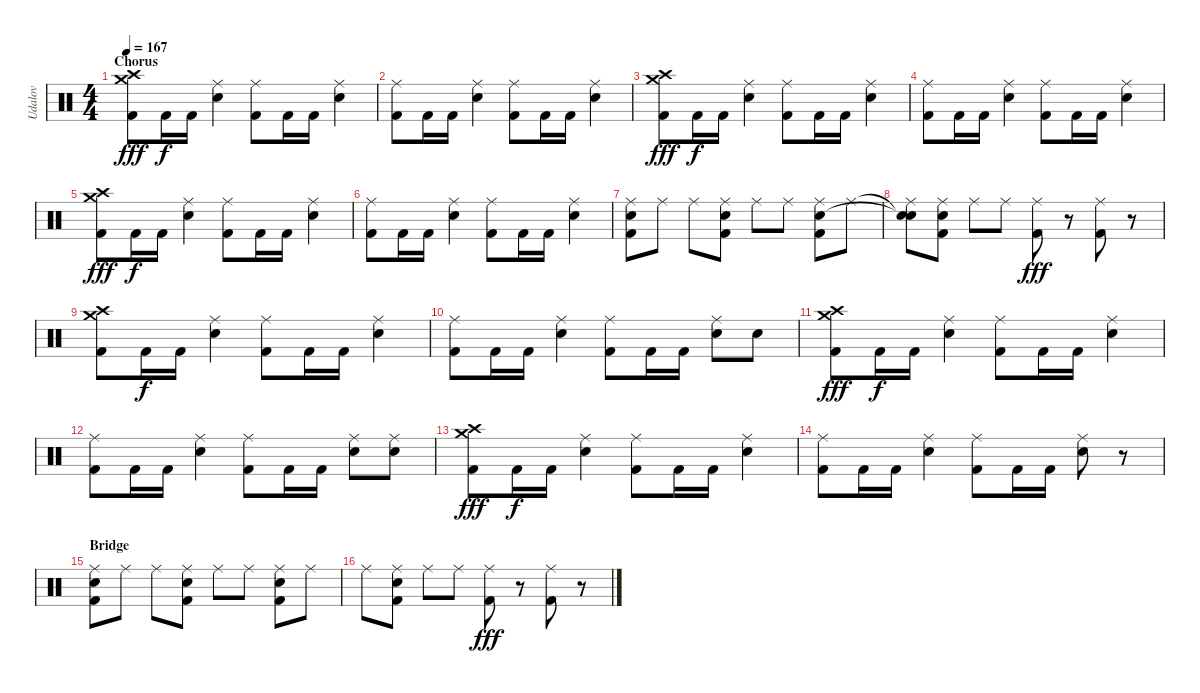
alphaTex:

\track ("Udalov" "Udalov") {instrument percussion}
\staff {score}
\articulation defaults
\ts (4 4)
\section ("" "Chorus")
\tempo 167
\clef neutral
\ks c
("Kick (hit) 2" "Crash high (hit)" "Crash medium (hit)").8{dy fff} "Kick (hit) 2".16{dy f} "Kick (hit) 2".16 ("Snare (hit) 2" "Ride (middle)").4 ("Kick (hit) 2" "Ride (middle)").8 "Kick (hit) 2".16 "Kick (hit) 2".16 ("Snare (hit) 2" "Ride (middle)").4 |
("Kick (hit) 2" "Ride (middle)").8 "Kick (hit) 2".16 "Kick (hit) 2".16 ("Snare (hit) 2" "Ride (middle)").4 ("Kick (hit) 2" "Ride (middle)").8 "Kick (hit) 2".16 "Kick (hit) 2".16 ("Snare (hit) 2" "Ride (middle)").4 |
("Kick (hit) 2" "Crash high (hit)" "Crash medium (hit)").8{dy fff} "Kick (hit) 2".16{dy f} "Kick (hit) 2".16 ("Snare (hit) 2" "Ride (middle)").4 ("Kick (hit) 2" "Ride (middle)").8 "Kick (hit) 2".16 "Kick (hit) 2".16 ("Snare (hit) 2" "Ride (middle)").4 |
("Kick (hit) 2" "Ride (middle)").8 "Kick (hit) 2".16 "Kick (hit) 2".16 ("Snare (hit) 2" "Ride (middle)").4 ("Kick (hit) 2" "Ride (middle)").8 "Kick (hit) 2".16 "Kick (hit) 2".16 ("Snare (hit) 2" "Ride (middle)").4 |
("Kick (hit) 2" "Crash high (hit)" "Crash medium (hit)").8{dy fff} "Kick (hit) 2".16{dy f} "Kick (hit) 2".16 ("Snare (hit) 2" "Ride (middle)").4 ("Kick (hit) 2" "Ride (middle)").8 "Kick (hit) 2".16 "Kick (hit) 2".16 ("Snare (hit) 2" "Ride (middle)").4 |
("Kick (hit) 2" "Ride (middle)").8 "Kick (hit) 2".16 "Kick (hit) 2".16 ("Snare (hit) 2" "Ride (middle)").4 ("Kick (hit) 2" "Ride (middle)").8 "Kick (hit) 2".16 "Kick (hit) 2".16 ("Snare (hit) 2" "Ride (middle)").4 |
("Kick (hit) 2" "Electric Snare (hit)" "Ride (middle)").8 "Ride (middle)".8 "Ride (middle)".8 ("Kick (hit) 2" "Electric Snare (hit)" "Ride (middle)").8 "Ride (middle)".8 "Ride (middle)".8 ("Kick (hit) 2" "Electric Snare (hit)" "Ride (middle)").8 "Ride (middle)".8 |
("Snare (hit)"{t} "Snare (hit)"{t} "Ride (middle)").8 ("Electric Snare (hit)" "Kick (hit) 2" "Ride (middle)").8 "Ride (middle)".8 "Ride (middle)".8 ("Ride (middle)" "Kick (hit) 2").8{dy fff} r.8 ("Ride (middle)" "Kick (hit) 2").8 r.8 |
("Kick (hit) 2" "Crash high (hit)" "Crash medium (hit)").8 "Kick (hit) 2".16{dy f} "Kick (hit) 2".16 ("Snare (hit) 2" "Ride (middle)").4 ("Kick (hit) 2" "Ride (middle)").8 "Kick (hit) 2".16 "Kick (hit) 2".16 ("Snare (hit) 2" "Ride (middle)").4 |
("Kick (hit) 2" "Ride (middle)").8 "Kick (hit) 2".16 "Kick (hit) 2".16 ("Snare (hit) 2" "Ride (middle)").4 ("Kick (hit) 2" "Ride (middle)").8 "Kick (hit) 2".16 "Kick (hit) 2".16 ("Snare (hit) 2" "Ride (middle)").8 "Snare (hit) 2".8 |
("Kick (hit) 2" "Crash medium (hit)" "Crash high (hit)").8{dy fff} "Kick (hit) 2".16{dy f} "Kick (hit) 2".16 ("Snare (hit) 2" "Ride (middle)").4 ("Kick (hit) 2" "Ride (middle)").8 "Kick (hit) 2".16 "Kick (hit) 2".16 ("Snare (hit) 2" "Ride (middle)").4 |
("Kick (hit) 2" "Ride (middle)").8 "Kick (hit) 2".16 "Kick (hit) 2".16 ("Snare (hit) 2" "Ride (middle)").4 ("Kick (hit) 2" "Ride (middle)").8 "Kick (hit) 2".16 "Kick (hit) 2".16 ("Snare (hit) 2" "Ride (middle)").8 ("Snare (hit) 2" "Ride (middle)").8 |
("Kick (hit) 2" "Crash high (hit)" "Crash medium (hit)").8{dy fff} "Kick (hit) 2".16{dy f} "Kick (hit) 2".16 ("Snare (hit) 2" "Ride (middle)").4 ("Kick (hit) 2" "Ride (middle)").8 "Kick (hit) 2".16 "Kick (hit) 2".16 ("Snare (hit) 2" "Ride (middle)").4 |
("Kick (hit) 2" "Ride (middle)").8 "Kick (hit) 2".16 "Kick (hit) 2".16 ("Snare (hit) 2" "Ride (middle)").4 ("Kick (hit) 2" "Ride (middle)").8 "Kick (hit) 2".16 "Kick (hit) 2".16 ("Snare (hit) 2" "Ride (middle)").8 r.8 |
\section ("" "Bridge")
("Kick (hit) 2" "Electric Snare (hit)" "Ride (middle)").8 "Ride (middle)".8 "Ride (middle)".8 ("Kick (hit) 2" "Electric Snare (hit)" "Ride (middle)").8 "Ride (middle)".8 "Ride (middle)".8 ("Kick (hit) 2" "Electric Snare (hit)" "Ride (middle)").8 "Ride (middle)".8 |
"Ride (middle)".8 ("Electric Snare (hit)" "Kick (hit) 2" "Ride (middle)").8 "Ride (middle)".8 "Ride (middle)".8 ("Ride (middle)" "Kick (hit) 2").8{dy fff} r.8 ("Ride (middle)" "Kick (hit) 2").8 r.8
